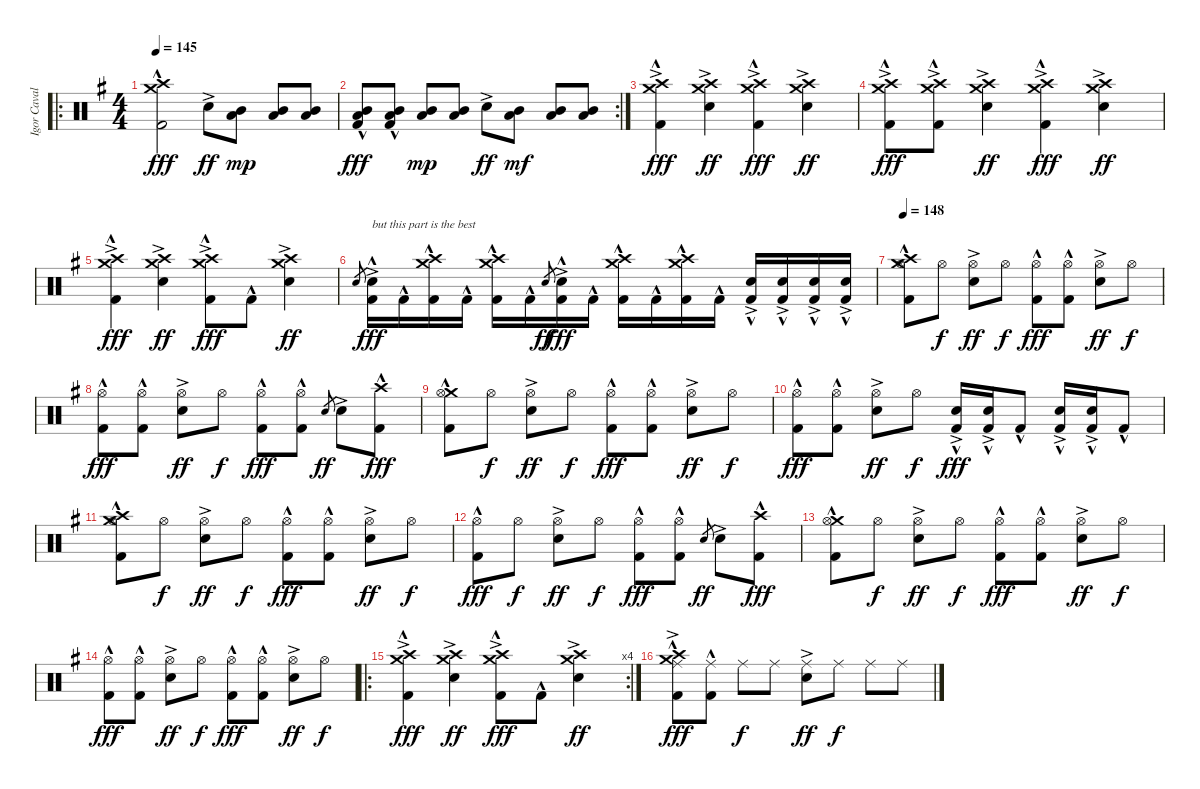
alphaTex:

\track ("Igor Cavalera" "Igor Caval") {instrument percussion}
\staff {score}
\articulation defaults
\ro
\ts (4 4)
\tempo 145
\clef neutral
\ks g
("Crash medium (hit)"{hac} "Crash high (hit)" "Kick (hit) 2"{hac}).2{dy fff} "Snare (hit) 2"{ac}.8{dy ff} ("Mid Tom (hit)" "Low Tom (hit)").8{dy mp} ("Mid Tom (hit)" "Low Tom (hit)").8 ("Mid Tom (hit)" "Low Tom (hit)").8 |
\rc 2
("Mid Tom (hit)"{hac} "Low Tom (hit)"{hac} "Kick (hit) 2"{hac}).8{dy fff} ("Mid Tom (hit)"{hac} "Low Tom (hit)"{hac} "Kick (hit) 2"{hac}).8 ("Mid Tom (hit)" "Low Tom (hit)").8{dy mp} ("Mid Tom (hit)" "Low Tom (hit)").8 "Snare (hit) 2"{ac}.8{dy ff} ("Mid Tom (hit)" "Low Tom (hit)").8{dy mf} ("Mid Tom (hit)" "Low Tom (hit)").8 ("Mid Tom (hit)" "Low Tom (hit)").8 |
("Crash high (hit)"{ac} "Crash medium (hit)" "Kick (hit) 2"{hac}).4{dy fff} ("Crash high (hit)"{ac} "Crash medium (hit)" "Snare (hit) 2"{ac}).4{dy ff} ("Crash high (hit)"{ac} "Crash medium (hit)" "Kick (hit) 2"{hac}).4{dy fff} ("Crash high (hit)"{ac} "Crash medium (hit)" "Snare (hit) 2"{ac}).4{dy ff} |
("Crash high (hit)"{ac} "Crash medium (hit)" "Kick (hit) 2"{hac}).8{dy fff} ("Crash high (hit)"{ac} "Crash medium (hit)" "Kick (hit) 2"{hac}).8 ("Crash high (hit)"{ac} "Crash medium (hit)" "Snare (hit) 2"{ac}).4{dy ff} ("Crash high (hit)"{ac} "Crash medium (hit)" "Kick (hit) 2"{hac}).4{dy fff} ("Crash high (hit)"{ac} "Crash medium (hit)" "Snare (hit) 2"{ac}).4{dy ff} |
("Crash high (hit)"{ac} "Crash medium (hit)" "Kick (hit) 2"{hac}).4{dy fff} ("Crash high (hit)"{ac} "Crash medium (hit)" "Snare (hit) 2"{ac}).4{dy ff} ("Crash high (hit)"{ac} "Crash medium (hit)" "Kick (hit) 2"{hac}).8{dy fff} "Kick (hit) 2"{hac}.8 ("Crash high (hit)"{ac} "Crash medium (hit)" "Snare (hit) 2"{ac}).4{dy ff} |
"Snare (hit) 2".8{gr} ("Snare (hit) 2"{ac} "Kick (hit) 2"{hac}).16{txt "but this part is the best" dy fff} "Kick (hit) 2"{hac}.16 ("Crash high (hit)" "Crash medium (hit)" "Kick (hit) 2"{hac}).16 "Kick (hit) 2"{hac}.16 ("Crash high (hit)" "Crash medium (hit)" "Kick (hit) 2"{hac}).16 "Kick (hit) 2"{hac}.16 "Snare (hit) 2".8{gr dy ff} ("Snare (hit) 2"{ac} "Kick (hit) 2"{hac}).16{dy fff} "Kick (hit) 2"{hac}.16 ("Crash high (hit)" "Crash medium (hit)" "Kick (hit) 2"{hac}).16 "Kick (hit) 2"{hac}.16 ("Crash high (hit)" "Crash medium (hit)" "Kick (hit) 2"{hac}).16 "Kick (hit) 2"{hac}.16 ("Snare (hit) 2"{ac} "Kick (hit) 2"{hac}).16 ("Snare (hit) 2"{ac} "Kick (hit) 2"{hac}).16 ("Snare (hit) 2"{ac} "Kick (hit) 2"{hac}).16 ("Snare (hit) 2"{ac} "Kick (hit) 2"{hac}).16 |
\tempo 148
("Crash high (hit)" "Crash medium (hit)" "Hi-Hat (open)" "Kick (hit) 2"{hac}).8 "Hi-Hat (open)".8{dy f} ("Snare (hit) 2"{ac} "Hi-Hat (open)").8{dy ff} "Hi-Hat (open)".8{dy f} ("Hi-Hat (open)" "Kick (hit) 2"{hac}).8{dy fff} ("Hi-Hat (open)" "Kick (hit) 2"{hac}).8 ("Snare (hit) 2"{ac} "Hi-Hat (open)").8{dy ff} "Hi-Hat (open)".8{dy f} |
("Hi-Hat (open)" "Kick (hit) 2"{hac}).8{dy fff} ("Hi-Hat (open)" "Kick (hit) 2"{hac}).8 ("Snare (hit) 2"{ac} "Hi-Hat (open)").8{dy ff} "Hi-Hat (open)".8{dy f} ("Hi-Hat (open)" "Kick (hit) 2"{hac}).8{dy fff} ("Hi-Hat (open)" "Kick (hit) 2"{hac}).8 "Snare (hit) 2".8{gr dy ff} "Snare (hit) 2"{ac}.8 ("Crash high (hit)"{hac} "Kick (hit) 2"{hac}).8{dy fff} |
("Crash medium (hit)"{hac} "Hi-Hat (open)" "Kick (hit) 2"{hac}).8 "Hi-Hat (open)".8{dy f} ("Snare (hit) 2"{ac} "Hi-Hat (open)").8{dy ff} "Hi-Hat (open)".8{dy f} ("Hi-Hat (open)" "Kick (hit) 2"{hac}).8{dy fff} ("Hi-Hat (open)" "Kick (hit) 2"{hac}).8 ("Snare (hit) 2"{ac} "Hi-Hat (open)").8{dy ff} "Hi-Hat (open)".8{dy f} |
("Hi-Hat (open)" "Kick (hit) 2"{hac}).8{dy fff} ("Hi-Hat (open)" "Kick (hit) 2"{hac}).8 ("Snare (hit) 2"{ac} "Hi-Hat (open)").8{dy ff} "Hi-Hat (open)".8{dy f} ("Snare (hit) 2"{ac} "Kick (hit) 2"{hac}).16{dy fff} ("Snare (hit) 2"{ac} "Kick (hit) 2"{hac}).16 "Kick (hit) 2"{hac}.8 ("Snare (hit) 2"{ac} "Kick (hit) 2"{hac}).16 ("Snare (hit) 2"{ac} "Kick (hit) 2"{hac}).16 "Kick (hit) 2"{hac}.8 |
("Crash high (hit)" "Crash medium (hit)" "Hi-Hat (open)" "Kick (hit) 2"{hac}).8 "Hi-Hat (open)".8{dy f} ("Snare (hit) 2"{ac} "Hi-Hat (open)").8{dy ff} "Hi-Hat (open)".8{dy f} ("Hi-Hat (open)" "Kick (hit) 2"{hac}).8{dy fff} ("Hi-Hat (open)" "Kick (hit) 2"{hac}).8 ("Snare (hit) 2"{ac} "Hi-Hat (open)").8{dy ff} "Hi-Hat (open)".8{dy f} |
("Hi-Hat (open)" "Kick (hit) 2"{hac}).8{dy fff} "Hi-Hat (open)".8{dy f} ("Snare (hit) 2"{ac} "Hi-Hat (open)").8{dy ff} "Hi-Hat (open)".8{dy f} ("Hi-Hat (open)" "Kick (hit) 2"{hac}).8{dy fff} ("Hi-Hat (open)" "Kick (hit) 2"{hac}).8 "Snare (hit) 2".8{gr dy ff} "Snare (hit) 2"{ac}.8 ("Crash high (hit)"{hac} "Kick (hit) 2"{hac}).8{dy fff} |
("Crash medium (hit)"{hac} "Hi-Hat (open)" "Kick (hit) 2"{hac}).8 "Hi-Hat (open)".8{dy f} ("Snare (hit) 2"{ac} "Hi-Hat (open)").8{dy ff} "Hi-Hat (open)".8{dy f} ("Hi-Hat (open)" "Kick (hit) 2"{hac}).8{dy fff} ("Hi-Hat (open)" "Kick (hit) 2"{hac}).8 ("Snare (hit) 2"{ac} "Hi-Hat (open)").8{dy ff} "Hi-Hat (open)".8{dy f} |
("Hi-Hat (open)" "Kick (hit) 2"{hac}).8{dy fff} ("Hi-Hat (open)" "Kick (hit) 2"{hac}).8 ("Snare (hit) 2"{ac} "Hi-Hat (open)").8{dy ff} "Hi-Hat (open)".8{dy f} ("Hi-Hat (open)" "Kick (hit) 2"{hac}).8{dy fff} ("Hi-Hat (open)" "Kick (hit) 2"{hac}).8 ("Snare (hit) 2"{ac} "Hi-Hat (open)").8{dy ff} "Hi-Hat (open)".8{dy f} |
\ro
\rc 4
("Crash high (hit)"{ac} "Crash medium (hit)" "Kick (hit) 2"{hac}).4{dy fff} ("Crash high (hit)"{ac} "Crash medium (hit)" "Snare (hit) 2"{ac}).4{dy ff} ("Crash high (hit)"{ac} "Crash medium (hit)" "Kick (hit) 2"{hac}).8{dy fff} "Kick (hit) 2"{hac}.8 ("Crash high (hit)"{ac} "Crash medium (hit)" "Snare (hit) 2"{ac}).4{dy ff} |
("Crash high (hit)"{hac} "Crash medium (hit)"{ac} "Ride (middle)" "Kick (hit) 2"{hac}).8{dy fff} ("Ride (middle)" "Kick (hit) 2"{hac}).8 "Ride (middle)".8{dy f} "Ride (middle)".8 ("Snare (hit) 2"{ac} "Ride (middle)").8{dy ff} "Ride (middle)".8{dy f} "Ride (middle)".8 "Ride (middle)".8
